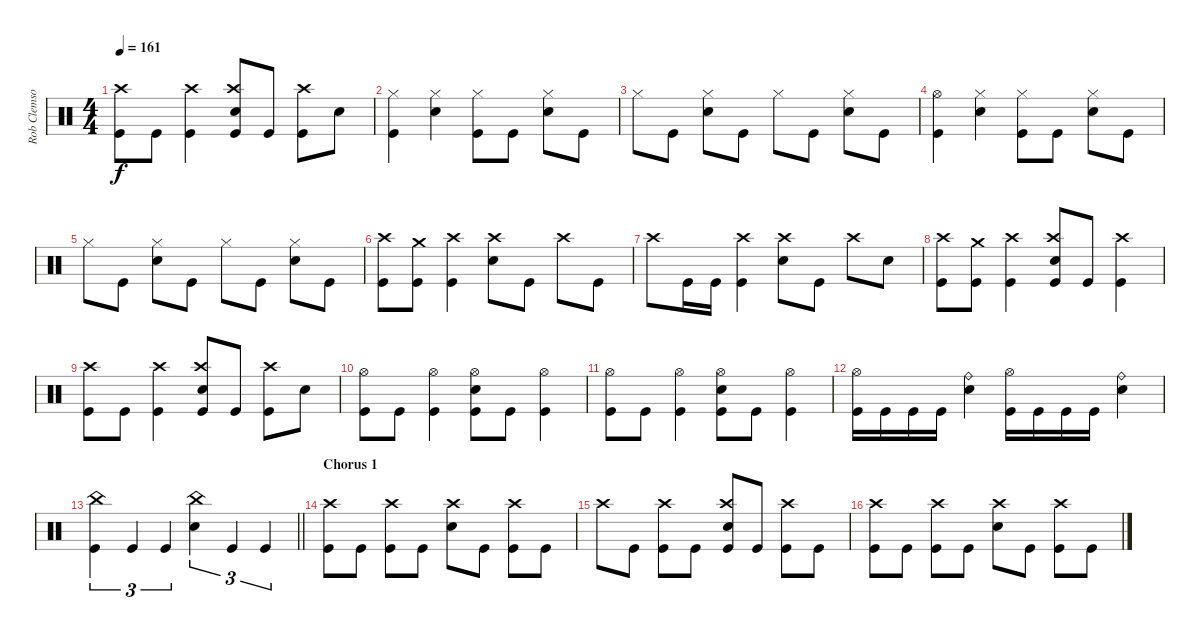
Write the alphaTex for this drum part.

\track ("Rob Clemson (Drums)" "Rob Clemso") {instrument percussion}
\staff {score}
\articulation defaults
\ts (4 4)
\tempo 161
\clef neutral
\ks c
("Kick (hit)" "Crash high (hit)").8{dy f} "Kick (hit)".8 ("Kick (hit)" "Crash high (hit)").4 ("Crash high (hit)" "Electric Snare (hit)" "Kick (hit)").8 "Kick (hit)".8 ("Kick (hit)" "Crash high (hit)").8 "Electric Snare (hit)".8 |
("Kick (hit)" "Hi-Hat (closed)").4 ("Hi-Hat (closed)" "Electric Snare (hit)").4 ("Kick (hit)" "Hi-Hat (closed)").8 "Kick (hit)".8 ("Electric Snare (hit)" "Hi-Hat (closed)").8 "Kick (hit)".8 |
"Hi-Hat (closed)".8 "Kick (hit)".8 ("Electric Snare (hit)" "Hi-Hat (closed)").8 "Kick (hit)".8 "Hi-Hat (closed)".8 "Kick (hit)".8 ("Electric Snare (hit)" "Hi-Hat (closed)").8 "Kick (hit)".8 |
("Kick (hit)" "Hi-Hat (open)").4 ("Electric Snare (hit)" "Hi-Hat (closed)").4 ("Kick (hit)" "Hi-Hat (closed)").8 "Kick (hit)".8 ("Electric Snare (hit)" "Hi-Hat (closed)").8 "Kick (hit)".8 |
"Hi-Hat (closed)".8 "Kick (hit)".8 ("Electric Snare (hit)" "Hi-Hat (closed)").8 "Kick (hit)".8 "Hi-Hat (closed)".8 "Kick (hit)".8 ("Electric Snare (hit)" "Hi-Hat (closed)").8 "Kick (hit)".8 |
("Kick (hit)" "Crash high (hit)").8 ("Kick (hit)" "Crash medium (hit)").8 ("Kick (hit)" "Crash high (hit)").4 ("Crash high (hit)" "Electric Snare (hit)").8 "Kick (hit)".8 "Crash high (hit)".8 "Kick (hit)".8 |
"Crash high (hit)".8 "Kick (hit)".16 "Kick (hit)".16 ("Kick (hit)" "Crash high (hit)").4 ("Crash high (hit)" "Electric Snare (hit)").8 "Kick (hit)".8 "Crash high (hit)".8 "Electric Snare (hit)".8 |
("Kick (hit)" "Crash high (hit)").8 ("Kick (hit)" "Crash medium (hit)").8 ("Kick (hit)" "Crash high (hit)").4 ("Crash high (hit)" "Electric Snare (hit)" "Kick (hit)").8 "Kick (hit)".8 ("Kick (hit)" "Crash high (hit)").4 |
("Kick (hit)" "Crash high (hit)").8 "Kick (hit)".8 ("Kick (hit)" "Crash high (hit)").4 ("Crash high (hit)" "Electric Snare (hit)" "Kick (hit)").8 "Kick (hit)".8 ("Kick (hit)" "Crash high (hit)").8 "Electric Snare (hit)".8 |
("Hi-Hat (open)" "Kick (hit)").8 "Kick (hit)".8 ("Kick (hit)" "Hi-Hat (open)").4 ("Hi-Hat (open)" "Kick (hit)" "Electric Snare (hit)").8 "Kick (hit)".8 ("Kick (hit)" "Hi-Hat (open)").4 |
("Hi-Hat (open)" "Kick (hit)").8 "Kick (hit)".8 ("Kick (hit)" "Hi-Hat (open)").4 ("Hi-Hat (open)" "Kick (hit)" "Electric Snare (hit)").8 "Kick (hit)".8 ("Kick (hit)" "Hi-Hat (open)").4 |
("Kick (hit)" "Hi-Hat (open)").16 "Kick (hit)".16 "Kick (hit)".16 "Kick (hit)".16 ("Electric Snare (hit)" "Ride (bell)").4 ("Kick (hit)" "Hi-Hat (open)").16 "Kick (hit)".16 "Kick (hit)".16 "Kick (hit)".16 ("Electric Snare (hit)" "Ride (bell)").4 |
\barLineRight lightlight
("Kick (hit)" "China (hit)").4{tu (3 2)} "Kick (hit)".4{tu (3 2)} "Kick (hit)".4{tu (3 2)} ("Electric Snare (hit)" "China (hit)").4{tu (3 2)} "Kick (hit)".4{tu (3 2)} "Kick (hit)".4{tu (3 2)} |
\section ("" "Chorus 1")
("Kick (hit)" "Crash high (hit)").8 "Kick (hit)".8 ("Kick (hit)" "Crash high (hit)").8 "Kick (hit)".8 ("Electric Snare (hit)" "Crash high (hit)").8 "Kick (hit)".8 ("Kick (hit)" "Crash high (hit)").8 "Kick (hit)".8 |
"Crash high (hit)".8 "Kick (hit)".8 ("Kick (hit)" "Crash high (hit)").8 "Kick (hit)".8 ("Crash high (hit)" "Kick (hit)" "Electric Snare (hit)").8 "Kick (hit)".8 ("Kick (hit)" "Crash high (hit)").8 "Kick (hit)".8 |
("Kick (hit)" "Crash high (hit)").8 "Kick (hit)".8 ("Kick (hit)" "Crash high (hit)").8 "Kick (hit)".8 ("Electric Snare (hit)" "Crash high (hit)").8 "Kick (hit)".8 ("Kick (hit)" "Crash high (hit)").8 "Kick (hit)".8
